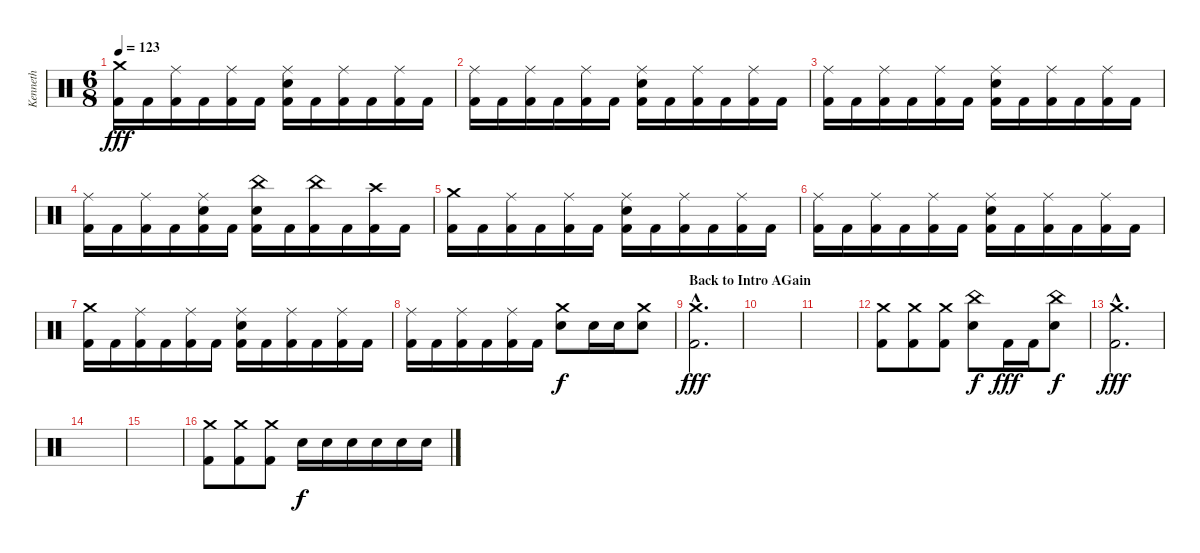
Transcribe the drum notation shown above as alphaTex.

\track ("Kenneth" "Kenneth") {instrument percussion}
\staff {score}
\articulation defaults
\ts (6 8)
\tempo 123
\clef neutral
\ks c
("Crash medium (hit)" "Kick (hit) 2").16{dy fff} "Kick (hit) 2".16 ("Ride (middle)" "Kick (hit) 2").16 "Kick (hit) 2".16 ("Ride (middle)" "Kick (hit) 2").16 "Kick (hit) 2".16 ("Ride (middle)" "Snare (hit) 2" "Kick (hit) 2").16 "Kick (hit) 2".16 ("Ride (middle)" "Kick (hit) 2").16 "Kick (hit) 2".16 ("Ride (middle)" "Kick (hit) 2").16 "Kick (hit) 2".16 |
("Ride (middle)" "Kick (hit) 2").16 "Kick (hit) 2".16 ("Ride (middle)" "Kick (hit) 2").16 "Kick (hit) 2".16 ("Ride (middle)" "Kick (hit) 2").16 "Kick (hit) 2".16 ("Ride (middle)" "Snare (hit) 2" "Kick (hit) 2").16 "Kick (hit) 2".16 ("Ride (middle)" "Kick (hit) 2").16 "Kick (hit) 2".16 ("Ride (middle)" "Kick (hit) 2").16 "Kick (hit) 2".16 |
("Ride (middle)" "Kick (hit) 2").16 "Kick (hit) 2".16 ("Ride (middle)" "Kick (hit) 2").16 "Kick (hit) 2".16 ("Ride (middle)" "Kick (hit) 2").16 "Kick (hit) 2".16 ("Ride (middle)" "Snare (hit) 2" "Kick (hit) 2").16 "Kick (hit) 2".16 ("Ride (middle)" "Kick (hit) 2").16 "Kick (hit) 2".16 ("Ride (middle)" "Kick (hit) 2").16 "Kick (hit) 2".16 |
("Ride (middle)" "Kick (hit) 2").16 "Kick (hit) 2".16 ("Ride (middle)" "Kick (hit) 2").16 "Kick (hit) 2".16 ("Ride (middle)" "Snare (hit) 2" "Kick (hit) 2").16 "Kick (hit) 2".16 ("China (hit)" "Snare (hit) 2" "Kick (hit) 2").16 "Kick (hit) 2".16 ("China (hit)" "Kick (hit) 2").16 "Kick (hit) 2".16 ("Crash high (hit)" "Kick (hit) 2").16 "Kick (hit) 2".16 |
("Crash medium (hit)" "Kick (hit) 2").16 "Kick (hit) 2".16 ("Ride (middle)" "Kick (hit) 2").16 "Kick (hit) 2".16 ("Ride (middle)" "Kick (hit) 2").16 "Kick (hit) 2".16 ("Ride (middle)" "Snare (hit) 2" "Kick (hit) 2").16 "Kick (hit) 2".16 ("Ride (middle)" "Kick (hit) 2").16 "Kick (hit) 2".16 ("Ride (middle)" "Kick (hit) 2").16 "Kick (hit) 2".16 |
("Ride (middle)" "Kick (hit) 2").16 "Kick (hit) 2".16 ("Ride (middle)" "Kick (hit) 2").16 "Kick (hit) 2".16 ("Ride (middle)" "Kick (hit) 2").16 "Kick (hit) 2".16 ("Ride (middle)" "Snare (hit) 2" "Kick (hit) 2").16 "Kick (hit) 2".16 ("Ride (middle)" "Kick (hit) 2").16 "Kick (hit) 2".16 ("Ride (middle)" "Kick (hit) 2").16 "Kick (hit) 2".16 |
("Crash medium (hit)" "Kick (hit) 2").16 "Kick (hit) 2".16 ("Ride (middle)" "Kick (hit) 2").16 "Kick (hit) 2".16 ("Ride (middle)" "Kick (hit) 2").16 "Kick (hit) 2".16 ("Ride (middle)" "Snare (hit) 2" "Kick (hit) 2").16 "Kick (hit) 2".16 ("Ride (middle)" "Kick (hit) 2").16 "Kick (hit) 2".16 ("Ride (middle)" "Kick (hit) 2").16 "Kick (hit) 2".16 |
("Ride (middle)" "Kick (hit) 2").16 "Kick (hit) 2".16 ("Ride (middle)" "Kick (hit) 2").16 "Kick (hit) 2".16 ("Ride (middle)" "Kick (hit) 2").16 "Kick (hit) 2".16 ("Crash medium (hit)" "Snare (hit) 2").8{dy f} "Snare (hit) 2".16 "Snare (hit) 2".16 ("Crash medium (hit)" "Snare (hit) 2").8 |
\section ("" "Back to Intro AGain")
("Crash medium (hit)"{hac} "Kick (hit) 2"{hac}).2{d dy fff} |
|
|
("Crash medium (hit)" "Kick (hit) 2").8 ("Crash medium (hit)" "Kick (hit) 2").8 ("Crash medium (hit)" "Kick (hit) 2").8 ("China (hit)" "Snare (hit) 2").8{dy f} "Kick (hit) 2".16{dy fff} "Kick (hit) 2".16 ("China (hit)" "Snare (hit) 2").8{dy f} |
("Crash medium (hit)"{hac} "Kick (hit) 2"{hac}).2{d dy fff} |
|
|
("Crash medium (hit)" "Kick (hit) 2").8 ("Crash medium (hit)" "Kick (hit) 2").8 ("Crash medium (hit)" "Kick (hit) 2").8 "Snare (hit) 2".16{dy f} "Snare (hit) 2".16 "Snare (hit) 2".16 "Snare (hit) 2".16 "Snare (hit) 2".16 "Snare (hit) 2".16
